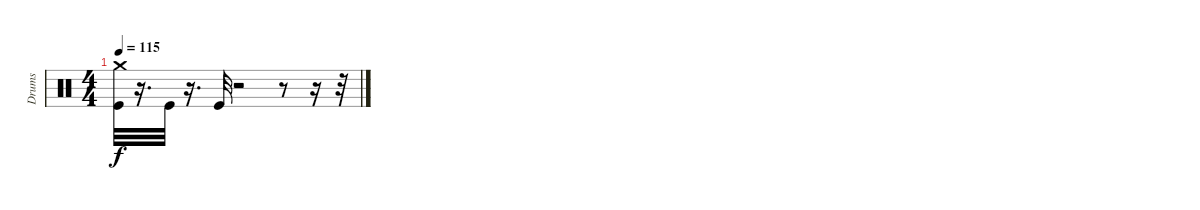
\track ("Drums" "Drums") {instrument percussion}
\staff {score}
\articulation defaults
\ts (4 4)
\tempo 115
\clef neutral
\ks c
("Crash medium (hit)" "Kick (hit)").32{dy f} r.16{d} "Kick (hit)".32 r.16{d} "Kick (hit)".32 r.2 r.8 r.16 r.32
